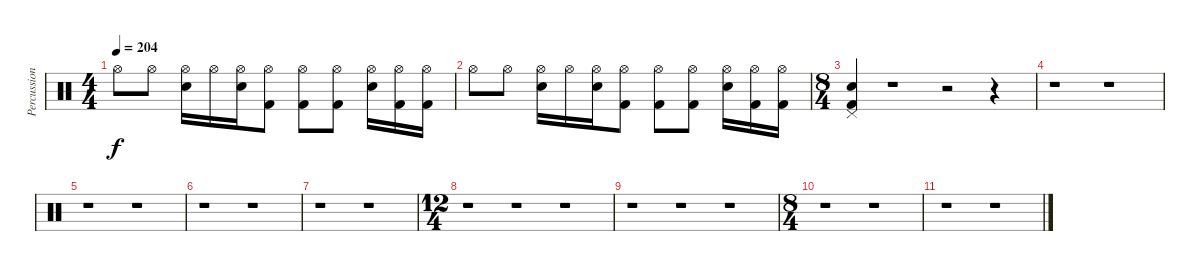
\track ("Percussion" "Percussion") {instrument percussion}
\staff {score}
\articulation defaults
\ts (4 4)
\tempo 204
\clef neutral
\ks c "Hi-Hat (open)".8{dy f} "Hi-Hat (open)".8
("Hi-Hat (open)" "Snare (hit) 2").16 "Hi-Hat (open)".16 ("Hi-Hat (open)" "Snare (hit) 2").16 ("Hi-Hat (open)" "Kick (hit) 2").8 ("Hi-Hat (open)" "Kick (hit) 2").8 ("Hi-Hat (open)" "Kick (hit) 2").8 ("Hi-Hat (open)" "Snare (hit) 2").16 ("Hi-Hat (open)" "Kick (hit) 2").16 ("Hi-Hat (open)" "Kick (hit) 2").16 |
"Hi-Hat (open)".8 "Hi-Hat (open)".8 ("Hi-Hat (open)" "Snare (hit) 2").16 "Hi-Hat (open)".16 ("Hi-Hat (open)" "Snare (hit) 2").16 ("Hi-Hat (open)" "Kick (hit) 2").8 ("Hi-Hat (open)" "Kick (hit) 2").8 ("Hi-Hat (open)" "Kick (hit) 2").8 ("Hi-Hat (open)" "Snare (hit) 2").16 ("Hi-Hat (open)" "Kick (hit) 2").16 ("Hi-Hat (open)" "Kick (hit) 2").16 |
\ts (8 4)
("Pedal Hi-Hat (hit)" "Snare (hit) 2" "Kick (hit) 2").4 r.1 r.2 r.4 |
r.1 r.1 |
r.1 r.1 |
r.1 r.1 |
r.1 r.1 |
\ts (12 4)
r.1 r.1 r.1 |
r.1 r.1 r.1 |
\ts (8 4)
r.1 r.1 |
r.1 r.1
